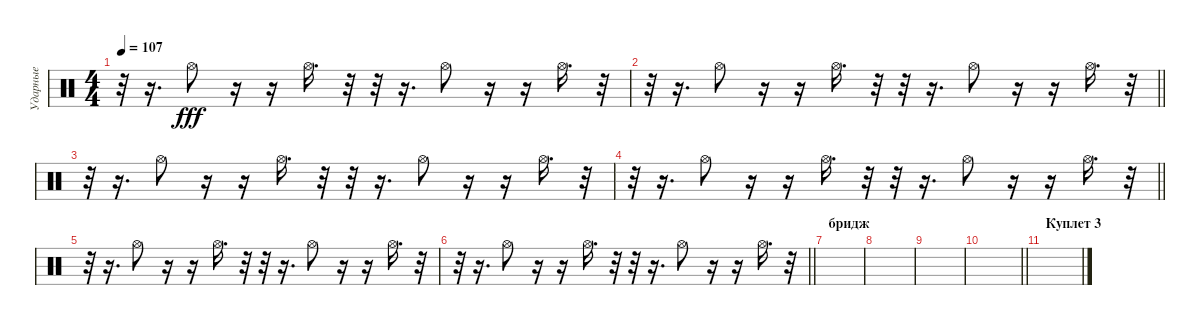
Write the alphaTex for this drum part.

\track ("Ударные" "Ударные") {solo instrument percussion}
\staff {score}
\articulation defaults
\ts (4 4)
\tempo 107
\clef neutral
\ks c
r.32{dy fff} r.16{d} "Hi-Hat (open)".8 r.16 r.16 "Hi-Hat (open)".16{d} r.32 r.32 r.16{d} "Hi-Hat (open)".8 r.16 r.16 "Hi-Hat (open)".16{d} r.32 |
\barLineRight lightlight
r.32 r.16{d} "Hi-Hat (open)".8 r.16 r.16 "Hi-Hat (open)".16{d} r.32 r.32 r.16{d} "Hi-Hat (open)".8 r.16 r.16 "Hi-Hat (open)".16{d} r.32 |
r.32 r.16{d} "Hi-Hat (open)".8 r.16 r.16 "Hi-Hat (open)".16{d} r.32 r.32 r.16{d} "Hi-Hat (open)".8 r.16 r.16 "Hi-Hat (open)".16{d} r.32 |
\barLineRight lightlight
r.32 r.16{d} "Hi-Hat (open)".8 r.16 r.16 "Hi-Hat (open)".16{d} r.32 r.32 r.16{d} "Hi-Hat (open)".8 r.16 r.16 "Hi-Hat (open)".16{d} r.32 |
r.32 r.16{d} "Hi-Hat (open)".8 r.16 r.16 "Hi-Hat (open)".16{d} r.32 r.32 r.16{d} "Hi-Hat (open)".8 r.16 r.16 "Hi-Hat (open)".16{d} r.32 |
\barLineRight lightlight
r.32 r.16{d} "Hi-Hat (open)".8 r.16 r.16 "Hi-Hat (open)".16{d} r.32 r.32 r.16{d} "Hi-Hat (open)".8 r.16 r.16 "Hi-Hat (open)".16{d} r.32 |
\section ("" "бридж")
|
|
|
\barLineRight lightlight
|
\section ("" "Куплет 3")
